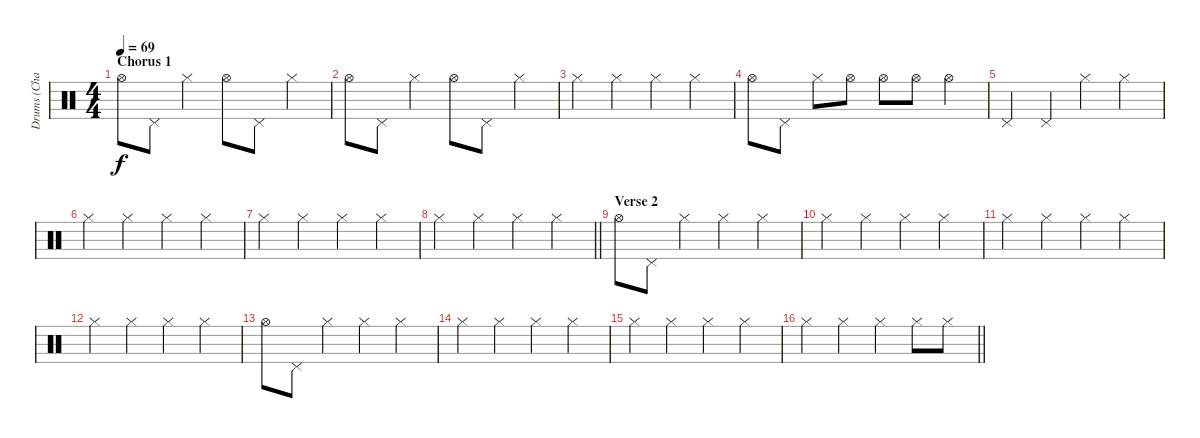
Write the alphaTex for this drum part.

\track ("Drums (Charlie)" "Drums (Cha") {instrument percussion}
\staff {score}
\articulation defaults
\ts (4 4)
\section ("" "Chorus 1")
\tempo 69
\clef neutral
\ks c "Hi-Hat (open)".8{dy f} "Pedal Hi-Hat (hit)".8 "Hi-Hat (closed)".4 "Hi-Hat (open)".8 "Pedal Hi-Hat (hit)".8 "Hi-Hat (closed)".4
|
"Hi-Hat (open)".8 "Pedal Hi-Hat (hit)".8 "Hi-Hat (closed)".4 "Hi-Hat (open)".8 "Pedal Hi-Hat (hit)".8 "Hi-Hat (closed)".4 |
"Hi-Hat (closed)".4 "Hi-Hat (closed)".4 "Hi-Hat (closed)".4 "Hi-Hat (closed)".4 |
"Hi-Hat (open)".8 "Pedal Hi-Hat (hit)".8 "Hi-Hat (closed)".8 "Hi-Hat (open)".8 "Hi-Hat (open)".8 "Hi-Hat (open)".8 "Hi-Hat (open)".4 |
"Pedal Hi-Hat (hit)".4 "Pedal Hi-Hat (hit)".4 "Hi-Hat (closed)".4 "Hi-Hat (closed)".4 |
"Hi-Hat (closed)".4 "Hi-Hat (closed)".4 "Hi-Hat (closed)".4 "Hi-Hat (closed)".4 |
"Hi-Hat (closed)".4 "Hi-Hat (closed)".4 "Hi-Hat (closed)".4 "Hi-Hat (closed)".4 |
\barLineRight lightlight "Hi-Hat (closed)".4 "Hi-Hat (closed)".4 "Hi-Hat (closed)".4 "Hi-Hat (closed)".4
|
\section ("" "Verse 2")
"Hi-Hat (open)".8 "Pedal Hi-Hat (hit)".8 "Hi-Hat (closed)".4 "Hi-Hat (closed)".4 "Hi-Hat (closed)".4 |
"Hi-Hat (closed)".4 "Hi-Hat (closed)".4 "Hi-Hat (closed)".4 "Hi-Hat (closed)".4 |
"Hi-Hat (closed)".4 "Hi-Hat (closed)".4 "Hi-Hat (closed)".4 "Hi-Hat (closed)".4 |
"Hi-Hat (closed)".4 "Hi-Hat (closed)".4 "Hi-Hat (closed)".4 "Hi-Hat (closed)".4 |
"Hi-Hat (open)".8 "Pedal Hi-Hat (hit)".8 "Hi-Hat (closed)".4 "Hi-Hat (closed)".4 "Hi-Hat (closed)".4 |
"Hi-Hat (closed)".4 "Hi-Hat (closed)".4 "Hi-Hat (closed)".4 "Hi-Hat (closed)".4 |
"Hi-Hat (closed)".4 "Hi-Hat (closed)".4 "Hi-Hat (closed)".4 "Hi-Hat (closed)".4 |
\barLineRight lightlight "Hi-Hat (closed)".4 "Hi-Hat (closed)".4 "Hi-Hat (closed)".4 "Hi-Hat (closed)".8 "Hi-Hat (closed)".8
